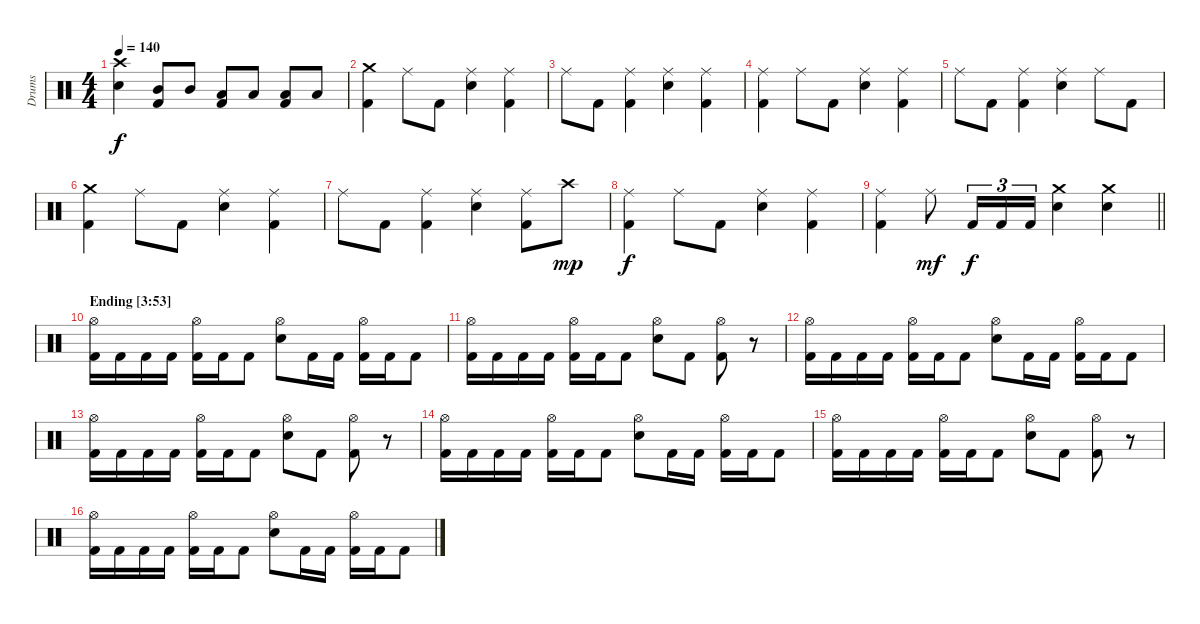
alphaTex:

\track ("Drums" "Drums") {instrument percussion}
\staff {score}
\articulation defaults
\ts (4 4)
\tempo 140
\clef neutral
\ks aminor
("Crash high (hit)" "Snare (hit) 2").4{dy f} ("Mid Tom (hit)" "Kick (hit) 2").8 "Mid Tom (hit)".8 ("Low Tom (hit)" "Kick (hit) 2").8 "Low Tom (hit)".8 ("Low Floor Tom (hit)" "Kick (hit) 2").8 "Low Floor Tom (hit)".8 |
("Crash medium (hit)" "Kick (hit) 2").4 "Ride (middle)".8 "Kick (hit) 2".8 ("Ride (middle)" "Snare (hit) 2").4 ("Ride (middle)" "Kick (hit) 2").4 |
"Ride (middle)".8 "Kick (hit) 2".8 ("Ride (middle)" "Kick (hit) 2").4 ("Ride (middle)" "Snare (hit) 2").4 ("Ride (middle)" "Kick (hit) 2").4 |
("Ride (middle)" "Kick (hit) 2").4 "Ride (middle)".8 "Kick (hit) 2".8 ("Ride (middle)" "Snare (hit) 2").4 ("Ride (middle)" "Kick (hit) 2").4 |
"Ride (middle)".8 "Kick (hit) 2".8 ("Ride (middle)" "Kick (hit) 2").4 ("Ride (middle)" "Snare (hit) 2").4 "Ride (middle)".8 "Kick (hit) 2".8 |
("Crash medium (hit)" "Kick (hit) 2").4 "Ride (middle)".8 "Kick (hit) 2".8 ("Ride (middle)" "Snare (hit) 2").4 ("Ride (middle)" "Kick (hit) 2").4 |
"Ride (middle)".8 "Kick (hit) 2".8 ("Ride (middle)" "Kick (hit) 2").4 ("Ride (middle)" "Snare (hit) 2").4 ("Ride (middle)" "Kick (hit) 2").8 "Crash high (hit)".8{dy mp} |
("Ride (middle)" "Kick (hit) 2").4{dy f} "Ride (middle)".8 "Kick (hit) 2".8 ("Ride (middle)" "Snare (hit) 2").4 ("Ride (middle)" "Kick (hit) 2").4 |
\barLineRight lightlight
("Ride (middle)" "Kick (hit) 2").4 "Ride (middle)".8{dy mf} "Kick (hit) 2".16{tu (3 2) dy f} "Kick (hit) 2".16{tu (3 2)} "Kick (hit) 2".16{tu (3 2)} ("Crash medium (hit)" "Snare (hit) 2").4 ("Crash medium (hit)" "Snare (hit) 2").4 |
\section ("" "Ending [3:53]")
("Hi-Hat (open)" "Kick (hit) 2").16 "Kick (hit) 2".16 "Kick (hit) 2".16 "Kick (hit) 2".16 ("Hi-Hat (open)" "Kick (hit) 2").16 "Kick (hit) 2".16 "Kick (hit) 2".8 ("Hi-Hat (open)" "Snare (hit) 2").8 "Kick (hit) 2".16 "Kick (hit) 2".16 ("Hi-Hat (open)" "Kick (hit) 2").16 "Kick (hit) 2".16 "Kick (hit) 2".8 |
("Hi-Hat (open)" "Kick (hit) 2").16 "Kick (hit) 2".16 "Kick (hit) 2".16 "Kick (hit) 2".16 ("Hi-Hat (open)" "Kick (hit) 2").16 "Kick (hit) 2".16 "Kick (hit) 2".8 ("Hi-Hat (open)" "Snare (hit) 2").8 "Kick (hit) 2".8 ("Hi-Hat (open)" "Kick (hit) 2").8 r.8 |
("Hi-Hat (open)" "Kick (hit) 2").16 "Kick (hit) 2".16 "Kick (hit) 2".16 "Kick (hit) 2".16 ("Hi-Hat (open)" "Kick (hit) 2").16 "Kick (hit) 2".16 "Kick (hit) 2".8 ("Hi-Hat (open)" "Snare (hit) 2").8 "Kick (hit) 2".16 "Kick (hit) 2".16 ("Hi-Hat (open)" "Kick (hit) 2").16 "Kick (hit) 2".16 "Kick (hit) 2".8 |
("Hi-Hat (open)" "Kick (hit) 2").16 "Kick (hit) 2".16 "Kick (hit) 2".16 "Kick (hit) 2".16 ("Hi-Hat (open)" "Kick (hit) 2").16 "Kick (hit) 2".16 "Kick (hit) 2".8 ("Hi-Hat (open)" "Snare (hit) 2").8 "Kick (hit) 2".8 ("Hi-Hat (open)" "Kick (hit) 2").8 r.8 |
("Hi-Hat (open)" "Kick (hit) 2").16 "Kick (hit) 2".16 "Kick (hit) 2".16 "Kick (hit) 2".16 ("Hi-Hat (open)" "Kick (hit) 2").16 "Kick (hit) 2".16 "Kick (hit) 2".8 ("Hi-Hat (open)" "Snare (hit) 2").8 "Kick (hit) 2".16 "Kick (hit) 2".16 ("Hi-Hat (open)" "Kick (hit) 2").16 "Kick (hit) 2".16 "Kick (hit) 2".8 |
("Hi-Hat (open)" "Kick (hit) 2").16 "Kick (hit) 2".16 "Kick (hit) 2".16 "Kick (hit) 2".16 ("Hi-Hat (open)" "Kick (hit) 2").16 "Kick (hit) 2".16 "Kick (hit) 2".8 ("Hi-Hat (open)" "Snare (hit) 2").8 "Kick (hit) 2".8 ("Hi-Hat (open)" "Kick (hit) 2").8 r.8 |
("Hi-Hat (open)" "Kick (hit) 2").16 "Kick (hit) 2".16 "Kick (hit) 2".16 "Kick (hit) 2".16 ("Hi-Hat (open)" "Kick (hit) 2").16 "Kick (hit) 2".16 "Kick (hit) 2".8 ("Hi-Hat (open)" "Snare (hit) 2").8 "Kick (hit) 2".16 "Kick (hit) 2".16 ("Hi-Hat (open)" "Kick (hit) 2").16 "Kick (hit) 2".16 "Kick (hit) 2".8
